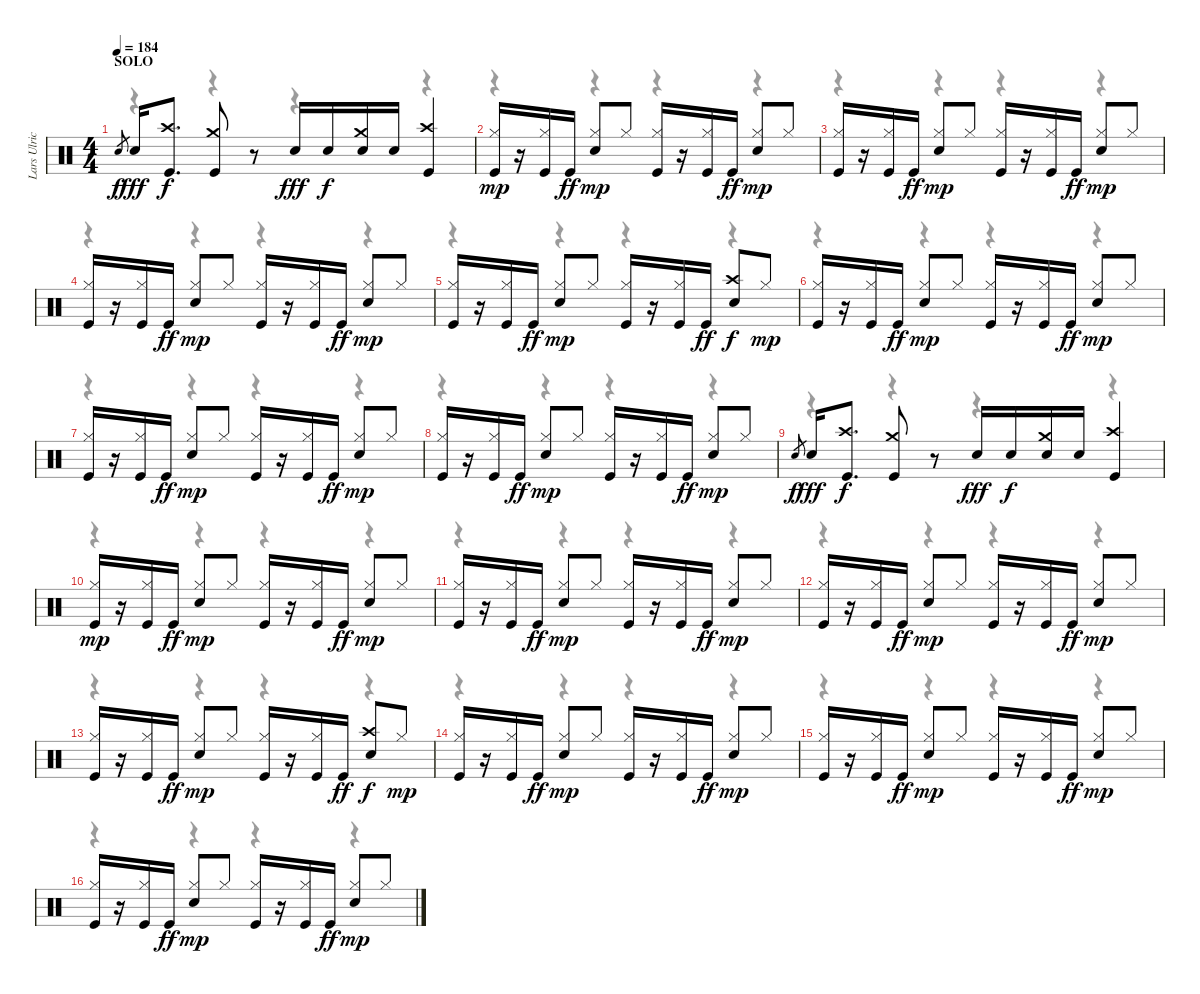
\track ("Lars Ulrich" "Lars Ulric") {instrument percussion}
\staff {score}
\articulation defaults
\voice
\ts (4 4)
\section ("" "SOLO")
\tempo 184
\clef neutral
\ks c "Snare (hit)".8{gr dy f} "Snare (hit) 2".16{dy fff}
("Crash high (hit)" "Kick (hit)").8{d dy f} ("Crash medium (hit)" "Kick (hit)").8 r.8 "Snare (hit) 2".16{dy fff} "Snare (hit) 2".16{dy f} ("Crash medium (hit)" "Snare (hit) 2").16 "Snare (hit) 2".16 ("Crash high (hit)" "Kick (hit)").4 |
("Hi-Hat (closed)" "Kick (hit)").16{dy mp} r.16 ("Hi-Hat (closed)" "Kick (hit)").16 "Kick (hit)".16{dy ff} ("Hi-Hat (closed)" "Snare (hit) 2").8{dy mp} "Hi-Hat (closed)".8 ("Hi-Hat (closed)" "Kick (hit)").16 r.16 ("Hi-Hat (closed)" "Kick (hit)").16 "Kick (hit)".16{dy ff} ("Hi-Hat (closed)" "Snare (hit) 2").8{dy mp} "Hi-Hat (closed)".8 |
("Hi-Hat (closed)" "Kick (hit)").16 r.16 ("Hi-Hat (closed)" "Kick (hit)").16 "Kick (hit)".16{dy ff} ("Hi-Hat (closed)" "Snare (hit) 2").8{dy mp} "Hi-Hat (closed)".8 ("Hi-Hat (closed)" "Kick (hit)").16 r.16 ("Hi-Hat (closed)" "Kick (hit)").16 "Kick (hit)".16{dy ff} ("Hi-Hat (closed)" "Snare (hit) 2").8{dy mp} "Hi-Hat (closed)".8 |
("Hi-Hat (closed)" "Kick (hit)").16 r.16 ("Hi-Hat (closed)" "Kick (hit)").16 "Kick (hit)".16{dy ff} ("Hi-Hat (closed)" "Snare (hit) 2").8{dy mp} "Hi-Hat (closed)".8 ("Hi-Hat (closed)" "Kick (hit)").16 r.16 ("Hi-Hat (closed)" "Kick (hit)").16 "Kick (hit)".16{dy ff} ("Hi-Hat (closed)" "Snare (hit) 2").8{dy mp} "Hi-Hat (closed)".8 |
("Hi-Hat (closed)" "Kick (hit)").16 r.16 ("Hi-Hat (closed)" "Kick (hit)").16 "Kick (hit)".16{dy ff} ("Hi-Hat (closed)" "Snare (hit) 2").8{dy mp} "Hi-Hat (closed)".8 ("Hi-Hat (closed)" "Kick (hit)").16 r.16 ("Hi-Hat (closed)" "Kick (hit)").16 "Kick (hit)".16{dy ff} ("Crash high (hit)" "Snare (hit) 2").8{dy f} "Hi-Hat (closed)".8{dy mp} |
("Hi-Hat (closed)" "Kick (hit)").16 r.16 ("Hi-Hat (closed)" "Kick (hit)").16 "Kick (hit)".16{dy ff} ("Hi-Hat (closed)" "Snare (hit) 2").8{dy mp} "Hi-Hat (closed)".8 ("Hi-Hat (closed)" "Kick (hit)").16 r.16 ("Hi-Hat (closed)" "Kick (hit)").16 "Kick (hit)".16{dy ff} ("Hi-Hat (closed)" "Snare (hit) 2").8{dy mp} "Hi-Hat (closed)".8 |
("Hi-Hat (closed)" "Kick (hit)").16 r.16 ("Hi-Hat (closed)" "Kick (hit)").16 "Kick (hit)".16{dy ff} ("Hi-Hat (closed)" "Snare (hit) 2").8{dy mp} "Hi-Hat (closed)".8 ("Hi-Hat (closed)" "Kick (hit)").16 r.16 ("Hi-Hat (closed)" "Kick (hit)").16 "Kick (hit)".16{dy ff} ("Hi-Hat (closed)" "Snare (hit) 2").8{dy mp} "Hi-Hat (closed)".8 |
("Hi-Hat (closed)" "Kick (hit)").16 r.16 ("Hi-Hat (closed)" "Kick (hit)").16 "Kick (hit)".16{dy ff} ("Hi-Hat (closed)" "Snare (hit) 2").8{dy mp} "Hi-Hat (closed)".8 ("Hi-Hat (closed)" "Kick (hit)").16 r.16 ("Hi-Hat (closed)" "Kick (hit)").16 "Kick (hit)".16{dy ff} ("Hi-Hat (closed)" "Snare (hit) 2").8{dy mp} "Hi-Hat (closed)".8 |
"Snare (hit)".8{gr dy f} "Snare (hit) 2".16{dy fff} ("Crash high (hit)" "Kick (hit)").8{d dy f} ("Crash medium (hit)" "Kick (hit)").8 r.8 "Snare (hit) 2".16{dy fff} "Snare (hit) 2".16{dy f} ("Crash medium (hit)" "Snare (hit) 2").16 "Snare (hit) 2".16 ("Crash high (hit)" "Kick (hit)").4 |
("Hi-Hat (closed)" "Kick (hit)").16{dy mp} r.16 ("Hi-Hat (closed)" "Kick (hit)").16 "Kick (hit)".16{dy ff} ("Hi-Hat (closed)" "Snare (hit) 2").8{dy mp} "Hi-Hat (closed)".8 ("Hi-Hat (closed)" "Kick (hit)").16 r.16 ("Hi-Hat (closed)" "Kick (hit)").16 "Kick (hit)".16{dy ff} ("Hi-Hat (closed)" "Snare (hit) 2").8{dy mp} "Hi-Hat (closed)".8 |
("Hi-Hat (closed)" "Kick (hit)").16 r.16 ("Hi-Hat (closed)" "Kick (hit)").16 "Kick (hit)".16{dy ff} ("Hi-Hat (closed)" "Snare (hit) 2").8{dy mp} "Hi-Hat (closed)".8 ("Hi-Hat (closed)" "Kick (hit)").16 r.16 ("Hi-Hat (closed)" "Kick (hit)").16 "Kick (hit)".16{dy ff} ("Hi-Hat (closed)" "Snare (hit) 2").8{dy mp} "Hi-Hat (closed)".8 |
("Hi-Hat (closed)" "Kick (hit)").16 r.16 ("Hi-Hat (closed)" "Kick (hit)").16 "Kick (hit)".16{dy ff} ("Hi-Hat (closed)" "Snare (hit) 2").8{dy mp} "Hi-Hat (closed)".8 ("Hi-Hat (closed)" "Kick (hit)").16 r.16 ("Hi-Hat (closed)" "Kick (hit)").16 "Kick (hit)".16{dy ff} ("Hi-Hat (closed)" "Snare (hit) 2").8{dy mp} "Hi-Hat (closed)".8 |
("Hi-Hat (closed)" "Kick (hit)").16 r.16 ("Hi-Hat (closed)" "Kick (hit)").16 "Kick (hit)".16{dy ff} ("Hi-Hat (closed)" "Snare (hit) 2").8{dy mp} "Hi-Hat (closed)".8 ("Hi-Hat (closed)" "Kick (hit)").16 r.16 ("Hi-Hat (closed)" "Kick (hit)").16 "Kick (hit)".16{dy ff} ("Crash high (hit)" "Snare (hit) 2").8{dy f} "Hi-Hat (closed)".8{dy mp} |
("Hi-Hat (closed)" "Kick (hit)").16 r.16 ("Hi-Hat (closed)" "Kick (hit)").16 "Kick (hit)".16{dy ff} ("Hi-Hat (closed)" "Snare (hit) 2").8{dy mp} "Hi-Hat (closed)".8 ("Hi-Hat (closed)" "Kick (hit)").16 r.16 ("Hi-Hat (closed)" "Kick (hit)").16 "Kick (hit)".16{dy ff} ("Hi-Hat (closed)" "Snare (hit) 2").8{dy mp} "Hi-Hat (closed)".8 |
("Hi-Hat (closed)" "Kick (hit)").16 r.16 ("Hi-Hat (closed)" "Kick (hit)").16 "Kick (hit)".16{dy ff} ("Hi-Hat (closed)" "Snare (hit) 2").8{dy mp} "Hi-Hat (closed)".8 ("Hi-Hat (closed)" "Kick (hit)").16 r.16 ("Hi-Hat (closed)" "Kick (hit)").16 "Kick (hit)".16{dy ff} ("Hi-Hat (closed)" "Snare (hit) 2").8{dy mp} "Hi-Hat (closed)".8 |
("Hi-Hat (closed)" "Kick (hit)").16 r.16 ("Hi-Hat (closed)" "Kick (hit)").16 "Kick (hit)".16{dy ff} ("Hi-Hat (closed)" "Snare (hit) 2").8{dy mp} "Hi-Hat (closed)".8 ("Hi-Hat (closed)" "Kick (hit)").16 r.16 ("Hi-Hat (closed)" "Kick (hit)").16 "Kick (hit)".16{dy ff} ("Hi-Hat (closed)" "Snare (hit) 2").8{dy mp} "Hi-Hat (closed)".8
\voice
\clef neutral
\ottava regular
\simile none
\ks c
r.4{dy f} r.4 r.4 r.4 |
r.4 r.4 r.4 r.4 |
r.4 r.4 r.4 r.4 |
r.4 r.4 r.4 r.4 |
r.4 r.4 r.4 r.4 |
r.4 r.4 r.4 r.4 |
r.4 r.4 r.4 r.4 |
r.4 r.4 r.4 r.4 |
r.4 r.4 r.4 r.4 |
r.4 r.4 r.4 r.4 |
r.4 r.4 r.4 r.4 |
r.4 r.4 r.4 r.4 |
r.4 r.4 r.4 r.4 |
r.4 r.4 r.4 r.4 |
r.4 r.4 r.4 r.4 |
r.4 r.4 r.4 r.4
